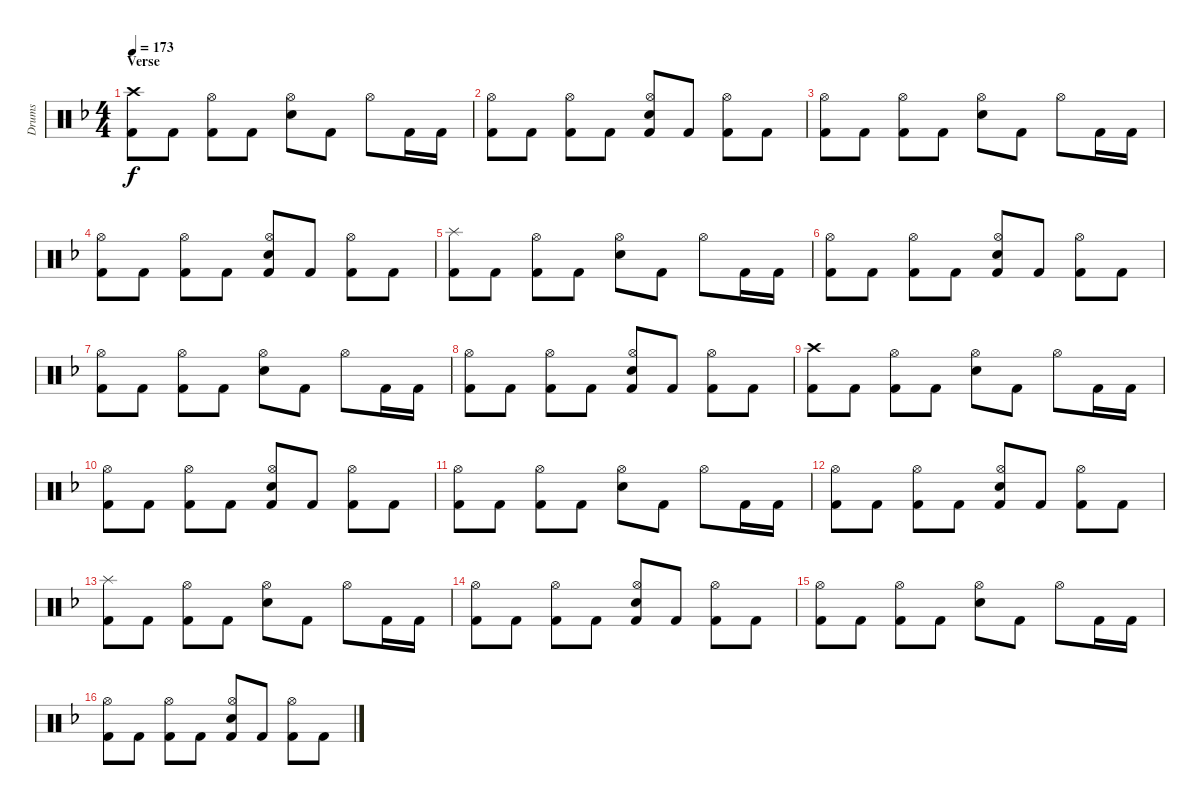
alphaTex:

\track ("Drums" "Drums") {instrument percussion}
\staff {score}
\articulation defaults
\ts (4 4)
\section ("" "Verse")
\tempo 173
\clef neutral
\ks dminor
("Crash high (hit)" "Kick (hit) 2").8{dy f} "Kick (hit) 2".8 ("Hi-Hat (open)" "Kick (hit) 2").8 "Kick (hit) 2".8 ("Hi-Hat (open)" "Snare (hit) 2").8 "Kick (hit) 2".8 "Hi-Hat (open)".8 "Kick (hit) 2".16 "Kick (hit) 2".16 |
("Hi-Hat (open)" "Kick (hit) 2").8 "Kick (hit) 2".8 ("Hi-Hat (open)" "Kick (hit) 2").8 "Kick (hit) 2".8 ("Hi-Hat (open)" "Snare (hit) 2" "Kick (hit) 2").8 "Kick (hit) 2".8 ("Hi-Hat (open)" "Kick (hit) 2").8 "Kick (hit) 2".8 |
("Hi-Hat (open)" "Kick (hit) 2").8 "Kick (hit) 2".8 ("Hi-Hat (open)" "Kick (hit) 2").8 "Kick (hit) 2".8 ("Hi-Hat (open)" "Snare (hit) 2").8 "Kick (hit) 2".8 "Hi-Hat (open)".8 "Kick (hit) 2".16 "Kick (hit) 2".16 |
("Hi-Hat (open)" "Kick (hit) 2").8 "Kick (hit) 2".8 ("Hi-Hat (open)" "Kick (hit) 2").8 "Kick (hit) 2".8 ("Hi-Hat (open)" "Snare (hit) 2" "Kick (hit) 2").8 "Kick (hit) 2".8 ("Hi-Hat (open)" "Kick (hit) 2").8 "Kick (hit) 2".8 |
("Splash (hit)" "Kick (hit) 2").8 "Kick (hit) 2".8 ("Hi-Hat (open)" "Kick (hit) 2").8 "Kick (hit) 2".8 ("Hi-Hat (open)" "Snare (hit) 2").8 "Kick (hit) 2".8 "Hi-Hat (open)".8 "Kick (hit) 2".16 "Kick (hit) 2".16 |
("Hi-Hat (open)" "Kick (hit) 2").8 "Kick (hit) 2".8 ("Hi-Hat (open)" "Kick (hit) 2").8 "Kick (hit) 2".8 ("Hi-Hat (open)" "Snare (hit) 2" "Kick (hit) 2").8 "Kick (hit) 2".8 ("Hi-Hat (open)" "Kick (hit) 2").8 "Kick (hit) 2".8 |
("Hi-Hat (open)" "Kick (hit) 2").8 "Kick (hit) 2".8 ("Hi-Hat (open)" "Kick (hit) 2").8 "Kick (hit) 2".8 ("Hi-Hat (open)" "Snare (hit) 2").8 "Kick (hit) 2".8 "Hi-Hat (open)".8 "Kick (hit) 2".16 "Kick (hit) 2".16 |
("Hi-Hat (open)" "Kick (hit) 2").8 "Kick (hit) 2".8 ("Hi-Hat (open)" "Kick (hit) 2").8 "Kick (hit) 2".8 ("Hi-Hat (open)" "Snare (hit) 2" "Kick (hit) 2").8 "Kick (hit) 2".8 ("Hi-Hat (open)" "Kick (hit) 2").8 "Kick (hit) 2".8 |
("Crash high (hit)" "Kick (hit) 2").8 "Kick (hit) 2".8 ("Hi-Hat (open)" "Kick (hit) 2").8 "Kick (hit) 2".8 ("Hi-Hat (open)" "Snare (hit) 2").8 "Kick (hit) 2".8 "Hi-Hat (open)".8 "Kick (hit) 2".16 "Kick (hit) 2".16 |
("Hi-Hat (open)" "Kick (hit) 2").8 "Kick (hit) 2".8 ("Hi-Hat (open)" "Kick (hit) 2").8 "Kick (hit) 2".8 ("Hi-Hat (open)" "Snare (hit) 2" "Kick (hit) 2").8 "Kick (hit) 2".8 ("Hi-Hat (open)" "Kick (hit) 2").8 "Kick (hit) 2".8 |
("Hi-Hat (open)" "Kick (hit) 2").8 "Kick (hit) 2".8 ("Hi-Hat (open)" "Kick (hit) 2").8 "Kick (hit) 2".8 ("Hi-Hat (open)" "Snare (hit) 2").8 "Kick (hit) 2".8 "Hi-Hat (open)".8 "Kick (hit) 2".16 "Kick (hit) 2".16 |
("Hi-Hat (open)" "Kick (hit) 2").8 "Kick (hit) 2".8 ("Hi-Hat (open)" "Kick (hit) 2").8 "Kick (hit) 2".8 ("Hi-Hat (open)" "Snare (hit) 2" "Kick (hit) 2").8 "Kick (hit) 2".8 ("Hi-Hat (open)" "Kick (hit) 2").8 "Kick (hit) 2".8 |
("Splash (hit)" "Kick (hit) 2").8 "Kick (hit) 2".8 ("Hi-Hat (open)" "Kick (hit) 2").8 "Kick (hit) 2".8 ("Hi-Hat (open)" "Snare (hit) 2").8 "Kick (hit) 2".8 "Hi-Hat (open)".8 "Kick (hit) 2".16 "Kick (hit) 2".16 |
("Hi-Hat (open)" "Kick (hit) 2").8 "Kick (hit) 2".8 ("Hi-Hat (open)" "Kick (hit) 2").8 "Kick (hit) 2".8 ("Hi-Hat (open)" "Snare (hit) 2" "Kick (hit) 2").8 "Kick (hit) 2".8 ("Hi-Hat (open)" "Kick (hit) 2").8 "Kick (hit) 2".8 |
("Hi-Hat (open)" "Kick (hit) 2").8 "Kick (hit) 2".8 ("Hi-Hat (open)" "Kick (hit) 2").8 "Kick (hit) 2".8 ("Hi-Hat (open)" "Snare (hit) 2").8 "Kick (hit) 2".8 "Hi-Hat (open)".8 "Kick (hit) 2".16 "Kick (hit) 2".16 |
("Hi-Hat (open)" "Kick (hit) 2").8 "Kick (hit) 2".8 ("Hi-Hat (open)" "Kick (hit) 2").8 "Kick (hit) 2".8 ("Hi-Hat (open)" "Snare (hit) 2" "Kick (hit) 2").8 "Kick (hit) 2".8 ("Hi-Hat (open)" "Kick (hit) 2").8 "Kick (hit) 2".8
